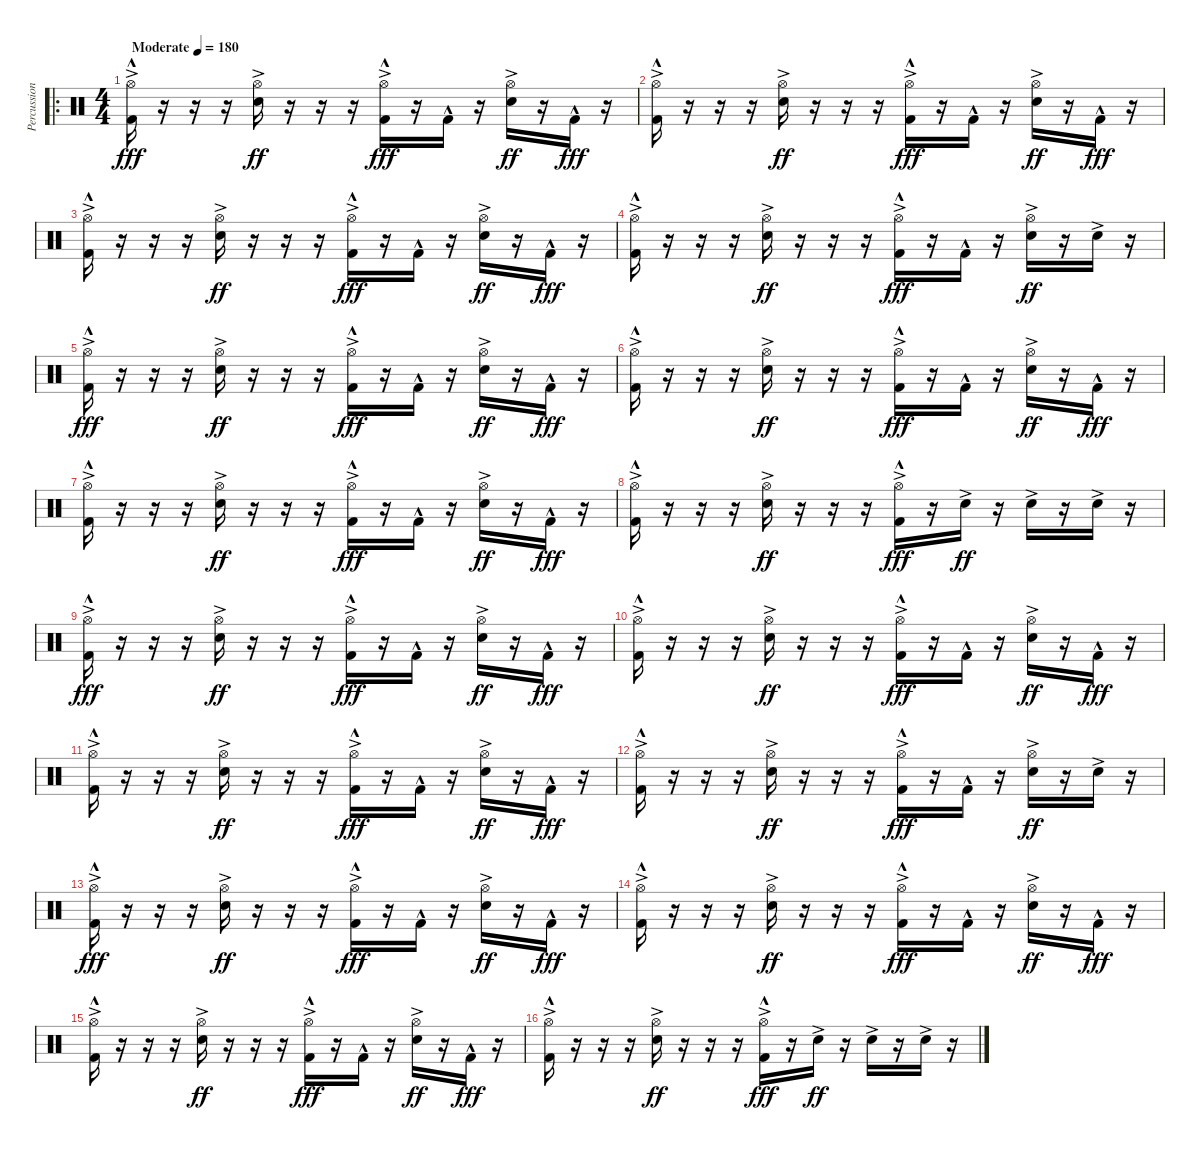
\track ("Percussion" "Percussion") {instrument percussion}
\staff {score}
\articulation defaults
\ro
\ts (4 4)
\tempo (180 "Moderate")
\clef neutral
\ks c
("Hi-Hat (open)"{ac} "Kick (hit) 2"{hac}).16{dy fff} r.16 r.16 r.16 ("Hi-Hat (open)"{ac} "Snare (hit) 2"{ac}).16{dy ff} r.16 r.16 r.16 ("Hi-Hat (open)"{ac} "Kick (hit) 2"{hac}).16{dy fff} r.16 "Kick (hit) 2"{hac}.16 r.16 ("Hi-Hat (open)"{ac} "Snare (hit) 2"{ac}).16{dy ff} r.16 "Kick (hit) 2"{hac}.16{dy fff} r.16 |
("Hi-Hat (open)"{ac} "Kick (hit) 2"{hac}).16 r.16 r.16 r.16 ("Hi-Hat (open)"{ac} "Snare (hit) 2"{ac}).16{dy ff} r.16 r.16 r.16 ("Hi-Hat (open)"{ac} "Kick (hit) 2"{hac}).16{dy fff} r.16 "Kick (hit) 2"{hac}.16 r.16 ("Hi-Hat (open)"{ac} "Snare (hit) 2"{ac}).16{dy ff} r.16 "Kick (hit) 2"{hac}.16{dy fff} r.16 |
("Hi-Hat (open)"{ac} "Kick (hit) 2"{hac}).16 r.16 r.16 r.16 ("Hi-Hat (open)"{ac} "Snare (hit) 2"{ac}).16{dy ff} r.16 r.16 r.16 ("Hi-Hat (open)"{ac} "Kick (hit) 2"{hac}).16{dy fff} r.16 "Kick (hit) 2"{hac}.16 r.16 ("Hi-Hat (open)"{ac} "Snare (hit) 2"{ac}).16{dy ff} r.16 "Kick (hit) 2"{hac}.16{dy fff} r.16 |
("Hi-Hat (open)"{ac} "Kick (hit) 2"{hac}).16 r.16 r.16 r.16 ("Hi-Hat (open)"{ac} "Snare (hit) 2"{ac}).16{dy ff} r.16 r.16 r.16 ("Hi-Hat (open)"{ac} "Kick (hit) 2"{hac}).16{dy fff} r.16 "Kick (hit) 2"{hac}.16 r.16 ("Hi-Hat (open)"{ac} "Snare (hit) 2"{ac}).16{dy ff} r.16 "Snare (hit) 2"{ac}.16 r.16 |
("Hi-Hat (open)"{ac} "Kick (hit) 2"{hac}).16{dy fff} r.16 r.16 r.16 ("Hi-Hat (open)"{ac} "Snare (hit) 2"{ac}).16{dy ff} r.16 r.16 r.16 ("Hi-Hat (open)"{ac} "Kick (hit) 2"{hac}).16{dy fff} r.16 "Kick (hit) 2"{hac}.16 r.16 ("Hi-Hat (open)"{ac} "Snare (hit) 2"{ac}).16{dy ff} r.16 "Kick (hit) 2"{hac}.16{dy fff} r.16 |
("Hi-Hat (open)"{ac} "Kick (hit) 2"{hac}).16 r.16 r.16 r.16 ("Hi-Hat (open)"{ac} "Snare (hit) 2"{ac}).16{dy ff} r.16 r.16 r.16 ("Hi-Hat (open)"{ac} "Kick (hit) 2"{hac}).16{dy fff} r.16 "Kick (hit) 2"{hac}.16 r.16 ("Hi-Hat (open)"{ac} "Snare (hit) 2"{ac}).16{dy ff} r.16 "Kick (hit) 2"{hac}.16{dy fff} r.16 |
("Hi-Hat (open)"{ac} "Kick (hit) 2"{hac}).16 r.16 r.16 r.16 ("Hi-Hat (open)"{ac} "Snare (hit) 2"{ac}).16{dy ff} r.16 r.16 r.16 ("Hi-Hat (open)"{ac} "Kick (hit) 2"{hac}).16{dy fff} r.16 "Kick (hit) 2"{hac}.16 r.16 ("Hi-Hat (open)"{ac} "Snare (hit) 2"{ac}).16{dy ff} r.16 "Kick (hit) 2"{hac}.16{dy fff} r.16 |
("Hi-Hat (open)"{ac} "Kick (hit) 2"{hac}).16 r.16 r.16 r.16 ("Hi-Hat (open)"{ac} "Snare (hit) 2"{ac}).16{dy ff} r.16 r.16 r.16 ("Hi-Hat (open)"{ac} "Kick (hit) 2"{hac}).16{dy fff} r.16 "Snare (hit) 2"{ac}.16{dy ff} r.16 "Snare (hit) 2"{ac}.16 r.16 "Snare (hit) 2"{ac}.16 r.16 |
("Hi-Hat (open)"{ac} "Kick (hit) 2"{hac}).16{dy fff} r.16 r.16 r.16 ("Hi-Hat (open)"{ac} "Snare (hit) 2"{ac}).16{dy ff} r.16 r.16 r.16 ("Hi-Hat (open)"{ac} "Kick (hit) 2"{hac}).16{dy fff} r.16 "Kick (hit) 2"{hac}.16 r.16 ("Hi-Hat (open)"{ac} "Snare (hit) 2"{ac}).16{dy ff} r.16 "Kick (hit) 2"{hac}.16{dy fff} r.16 |
("Hi-Hat (open)"{ac} "Kick (hit) 2"{hac}).16 r.16 r.16 r.16 ("Hi-Hat (open)"{ac} "Snare (hit) 2"{ac}).16{dy ff} r.16 r.16 r.16 ("Hi-Hat (open)"{ac} "Kick (hit) 2"{hac}).16{dy fff} r.16 "Kick (hit) 2"{hac}.16 r.16 ("Hi-Hat (open)"{ac} "Snare (hit) 2"{ac}).16{dy ff} r.16 "Kick (hit) 2"{hac}.16{dy fff} r.16 |
("Hi-Hat (open)"{ac} "Kick (hit) 2"{hac}).16 r.16 r.16 r.16 ("Hi-Hat (open)"{ac} "Snare (hit) 2"{ac}).16{dy ff} r.16 r.16 r.16 ("Hi-Hat (open)"{ac} "Kick (hit) 2"{hac}).16{dy fff} r.16 "Kick (hit) 2"{hac}.16 r.16 ("Hi-Hat (open)"{ac} "Snare (hit) 2"{ac}).16{dy ff} r.16 "Kick (hit) 2"{hac}.16{dy fff} r.16 |
("Hi-Hat (open)"{ac} "Kick (hit) 2"{hac}).16 r.16 r.16 r.16 ("Hi-Hat (open)"{ac} "Snare (hit) 2"{ac}).16{dy ff} r.16 r.16 r.16 ("Hi-Hat (open)"{ac} "Kick (hit) 2"{hac}).16{dy fff} r.16 "Kick (hit) 2"{hac}.16 r.16 ("Hi-Hat (open)"{ac} "Snare (hit) 2"{ac}).16{dy ff} r.16 "Snare (hit) 2"{ac}.16 r.16 |
("Hi-Hat (open)"{ac} "Kick (hit) 2"{hac}).16{dy fff} r.16 r.16 r.16 ("Hi-Hat (open)"{ac} "Snare (hit) 2"{ac}).16{dy ff} r.16 r.16 r.16 ("Hi-Hat (open)"{ac} "Kick (hit) 2"{hac}).16{dy fff} r.16 "Kick (hit) 2"{hac}.16 r.16 ("Hi-Hat (open)"{ac} "Snare (hit) 2"{ac}).16{dy ff} r.16 "Kick (hit) 2"{hac}.16{dy fff} r.16 |
("Hi-Hat (open)"{ac} "Kick (hit) 2"{hac}).16 r.16 r.16 r.16 ("Hi-Hat (open)"{ac} "Snare (hit) 2"{ac}).16{dy ff} r.16 r.16 r.16 ("Hi-Hat (open)"{ac} "Kick (hit) 2"{hac}).16{dy fff} r.16 "Kick (hit) 2"{hac}.16 r.16 ("Hi-Hat (open)"{ac} "Snare (hit) 2"{ac}).16{dy ff} r.16 "Kick (hit) 2"{hac}.16{dy fff} r.16 |
("Hi-Hat (open)"{ac} "Kick (hit) 2"{hac}).16 r.16 r.16 r.16 ("Hi-Hat (open)"{ac} "Snare (hit) 2"{ac}).16{dy ff} r.16 r.16 r.16 ("Hi-Hat (open)"{ac} "Kick (hit) 2"{hac}).16{dy fff} r.16 "Kick (hit) 2"{hac}.16 r.16 ("Hi-Hat (open)"{ac} "Snare (hit) 2"{ac}).16{dy ff} r.16 "Kick (hit) 2"{hac}.16{dy fff} r.16 |
("Hi-Hat (open)"{ac} "Kick (hit) 2"{hac}).16 r.16 r.16 r.16 ("Hi-Hat (open)"{ac} "Snare (hit) 2"{ac}).16{dy ff} r.16 r.16 r.16 ("Hi-Hat (open)"{ac} "Kick (hit) 2"{hac}).16{dy fff} r.16 "Snare (hit) 2"{ac}.16{dy ff} r.16 "Snare (hit) 2"{ac}.16 r.16 "Snare (hit) 2"{ac}.16 r.16
